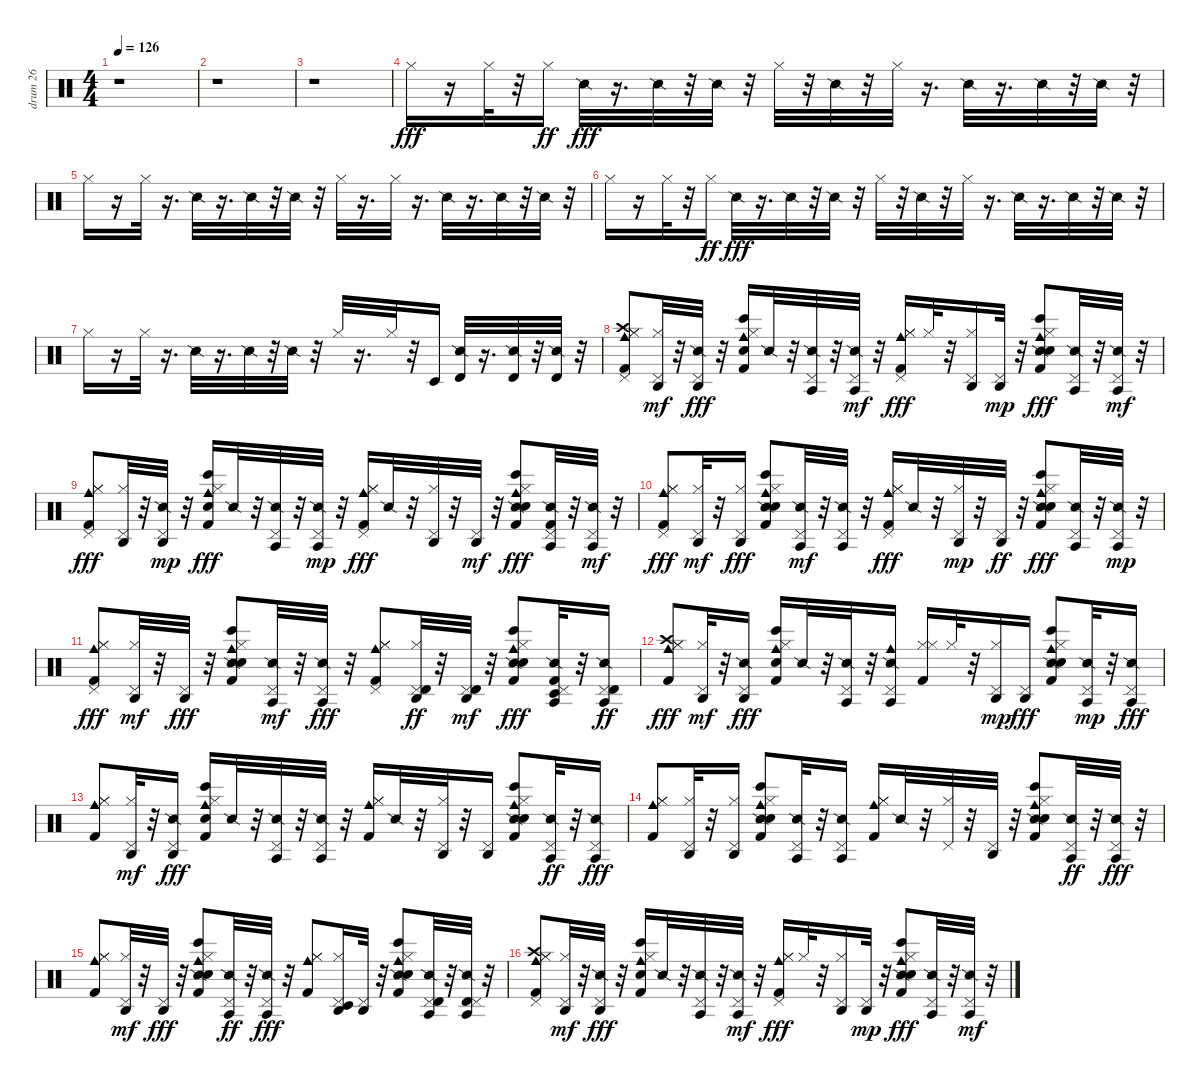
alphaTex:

\track ("drum 26" "drum 26") {instrument percussion}
\staff {score}
\articulation defaults
\ts (4 4)
\tempo 126
\clef neutral
\ks c
r.1{dy fff} |
r.1 |
r.1 |
"Hi-Hat (closed)".16 r.16 "Hi-Hat (closed)".32 r.32 "Hi-Hat (closed)".16{dy ff} "Snare (side stick) 2".32{dy fff} r.16{d} "Snare (side stick) 2".32 r.32 "Snare (side stick) 2".32 r.32 "Hi-Hat (closed)".32 r.32 "Snare (side stick) 2".32 r.32 "Hi-Hat (closed)".32 r.16{d} "Snare (side stick) 2".32 r.16{d} "Snare (side stick) 2".32 r.32 "Snare (side stick) 2".32 r.32 |
"Hi-Hat (closed)".16 r.16 "Hi-Hat (closed)".32 r.16{d} "Snare (side stick) 2".32 r.16{d} "Snare (side stick) 2".32 r.32 "Snare (side stick) 2".32 r.32 "Hi-Hat (closed)".32 r.16{d} "Hi-Hat (closed)".32 r.16{d} "Snare (side stick) 2".32 r.16{d} "Snare (side stick) 2".32 r.32 "Snare (side stick) 2".32 r.32 |
"Hi-Hat (closed)".16 r.16 "Hi-Hat (closed)".32 r.32 "Hi-Hat (closed)".16{dy ff} "Snare (side stick) 2".32{dy fff} r.16{d} "Snare (side stick) 2".32 r.32 "Snare (side stick) 2".32 r.32 "Hi-Hat (closed)".32 r.32 "Snare (side stick) 2".32 r.32 "Hi-Hat (closed)".32 r.16{d} "Snare (side stick) 2".32 r.16{d} "Snare (side stick) 2".32 r.32 "Snare (side stick) 2".32 r.32 |
"Hi-Hat (closed)".16 r.16 "Hi-Hat (closed)".32 r.16{d} "Snare (side stick) 2".32 r.16{d} "Snare (side stick) 2".32 r.32 "Snare (side stick) 2".32 r.32 "Hi-Hat (closed)".32 r.16{d} "Hi-Hat (closed)".32 r.32 "Timbale low (hit)".16 ("Timbale high (hit)" "Snare (side stick) 2").32 r.16{d} ("Timbale high (hit)" "Snare (side stick) 2").32 r.32 ("Timbale high (hit)" "Snare (side stick) 2").32 r.32 |
("Hi-Hat (closed)" "Kick (hit) 2" "Hi-Hat (closed)" "Pedal Hi-Hat (hit)" "Crash high (hit)" "Cowbell medium (hit)").8 ("Hi-Hat (closed)" "Pedal Hi-Hat (hit)" "Agogo high (hit)").32{dy mf} r.32 ("Snare (side stick) 2" "Pedal Hi-Hat (hit)" "Agogo high (hit)").32{dy fff} r.32 ("Bongo High (hit)" "Kick (hit) 2" "Hand Clap (hit)" "Hi-Hat (closed)" "Cowbell medium (hit)").16 "Snare (side stick) 2".32 r.32 ("Snare (side stick) 2" "Pedal Hi-Hat (hit)" "Agogo tow (hit)").32 r.32 ("Snare (side stick) 2" "Pedal Hi-Hat (hit)" "Agogo tow (hit)").32{dy mf} r.32 ("Hi-Hat (closed)" "Kick (hit) 2" "Hi-Hat (closed)" "Pedal Hi-Hat (hit)" "Cowbell medium (hit)").16{dy fff} "Hi-Hat (closed)".32 r.32 ("Hi-Hat (closed)" "Pedal Hi-Hat (hit)" "Agogo high (hit)").16 ("Pedal Hi-Hat (hit)" "Agogo high (hit)").32{dy mp} r.32 ("Bongo High (hit)" "Snare (side stick) 2" "Kick (hit) 2" "Hand Clap (hit)" "Hi-Hat (closed)" "Cowbell medium (hit)").8{dy fff} ("Snare (side stick) 2" "Pedal Hi-Hat (hit)" "Agogo tow (hit)").32 r.32 ("Snare (side stick) 2" "Pedal Hi-Hat (hit)" "Agogo tow (hit)").32{dy mf} r.32 |
("Hi-Hat (closed)" "Kick (hit) 2" "Hi-Hat (closed)" "Pedal Hi-Hat (hit)" "Cowbell medium (hit)").8{dy fff} ("Hi-Hat (closed)" "Pedal Hi-Hat (hit)" "Agogo high (hit)").32 r.32 ("Snare (side stick) 2" "Pedal Hi-Hat (hit)" "Agogo high (hit)").32{dy mp} r.32 ("Bongo High (hit)" "Kick (hit) 2" "Hand Clap (hit)" "Hi-Hat (closed)" "Cowbell medium (hit)").16{dy fff} "Snare (side stick) 2".32 r.32 ("Snare (side stick) 2" "Pedal Hi-Hat (hit)" "Agogo tow (hit)").32 r.32 ("Snare (side stick) 2" "Pedal Hi-Hat (hit)" "Agogo tow (hit)").32{dy mp} r.32 ("Hi-Hat (closed)" "Kick (hit) 2" "Hi-Hat (closed)" "Pedal Hi-Hat (hit)" "Cowbell medium (hit)").16{dy fff} "Snare (side stick) 2".32 r.32 ("Hi-Hat (closed)" "Pedal Hi-Hat (hit)" "Agogo high (hit)").32 r.32 ("Pedal Hi-Hat (hit)" "Agogo high (hit)").32{dy mf} r.32 ("Bongo High (hit)" "Snare (side stick) 2" "Kick (hit) 2" "Hand Clap (hit)" "Hi-Hat (closed)" "Cowbell medium (hit)").8{dy fff} ("Snare (side stick) 2" "Kick (hit) 2" "Pedal Hi-Hat (hit)" "Agogo tow (hit)").32 r.32 ("Snare (side stick) 2" "Pedal Hi-Hat (hit)" "Agogo tow (hit)").32{dy mf} r.32 |
("Hi-Hat (closed)" "Kick (hit) 2" "Hi-Hat (closed)" "Pedal Hi-Hat (hit)" "Cowbell medium (hit)").8{dy fff} ("Hi-Hat (closed)" "Pedal Hi-Hat (hit)" "Agogo high (hit)").32{dy mf} r.32 ("Hi-Hat (closed)" "Pedal Hi-Hat (hit)" "Agogo high (hit)").16{dy fff} ("Bongo High (hit)" "Snare (side stick) 2" "Kick (hit) 2" "Hand Clap (hit)" "Hi-Hat (closed)" "Cowbell medium (hit)").8 ("Snare (side stick) 2" "Pedal Hi-Hat (hit)" "Agogo tow (hit)").32{dy mf} r.32 ("Snare (side stick) 2" "Pedal Hi-Hat (hit)" "Agogo tow (hit)").32 r.32 ("Hi-Hat (closed)" "Kick (hit) 2" "Hi-Hat (closed)" "Pedal Hi-Hat (hit)" "Cowbell medium (hit)").16{dy fff} "Snare (side stick) 2".32 r.32 ("Hi-Hat (closed)" "Pedal Hi-Hat (hit)" "Agogo high (hit)").32{dy mp} r.32 ("Pedal Hi-Hat (hit)" "Agogo high (hit)").32{dy ff} r.32 ("Bongo High (hit)" "Snare (side stick) 2" "Kick (hit) 2" "Hand Clap (hit)" "Hi-Hat (closed)" "Cowbell medium (hit)").8{dy fff} ("Snare (side stick) 2" "Pedal Hi-Hat (hit)" "Agogo tow (hit)").32 r.32 ("Snare (side stick) 2" "Pedal Hi-Hat (hit)" "Agogo tow (hit)").32{dy mp} r.32 |
("Hi-Hat (closed)" "Kick (hit) 2" "Hi-Hat (closed)" "Pedal Hi-Hat (hit)" "Cowbell medium (hit)").8{dy fff} ("Hi-Hat (closed)" "Pedal Hi-Hat (hit)" "Agogo high (hit)").32{dy mf} r.32 ("Pedal Hi-Hat (hit)" "Agogo high (hit)").32{dy fff} r.32 ("Bongo High (hit)" "Snare (side stick) 2" "Kick (hit) 2" "Hand Clap (hit)" "Hi-Hat (closed)" "Cowbell medium (hit)").8 ("Snare (side stick) 2" "Pedal Hi-Hat (hit)" "Agogo tow (hit)").32{dy mf} r.32 ("Snare (side stick) 2" "Pedal Hi-Hat (hit)" "Agogo tow (hit)").32{dy fff} r.32 ("Hi-Hat (closed)" "Kick (hit) 2" "Hi-Hat (closed)" "Pedal Hi-Hat (hit)" "Cowbell medium (hit)").8 ("Hi-Hat (closed)" "Pedal Hi-Hat (hit)" "Timbale high (hit)" "Agogo high (hit)").32{dy ff} r.32 ("Pedal Hi-Hat (hit)" "Timbale high (hit)" "Agogo high (hit)").32{dy mf} r.32 ("Bongo High (hit)" "Snare (side stick) 2" "Kick (hit) 2" "Hand Clap (hit)" "Hi-Hat (closed)" "Cowbell medium (hit)").8{dy fff} ("Snare (side stick) 2" "Kick (hit) 2" "Pedal Hi-Hat (hit)" "Timbale low (hit)" "Agogo tow (hit)").32 r.32 ("Snare (side stick) 2" "Pedal Hi-Hat (hit)" "Timbale high (hit)" "Agogo tow (hit)").16{dy ff} |
("Hi-Hat (closed)" "Kick (hit) 2" "Hi-Hat (closed)" "Crash high (hit)" "Cowbell medium (hit)").8{dy fff} ("Hi-Hat (closed)" "Pedal Hi-Hat (hit)" "Agogo high (hit)").32{dy mf} r.32 ("Snare (side stick) 2" "Agogo high (hit)" "Pedal Hi-Hat (hit)").16{dy fff} ("Bongo High (hit)" "Kick (hit) 2" "Hand Clap (hit)" "Hi-Hat (closed)" "Cowbell medium (hit)").16 "Snare (side stick) 2".32 r.32 ("Snare (side stick) 2" "Pedal Hi-Hat (hit)" "Agogo tow (hit)").32 r.32 ("Snare (side stick) 2" "Cowbell medium (hit)" "Agogo tow (hit)" "Pedal Hi-Hat (hit)").16 ("Hi-Hat (closed)" "Kick (hit) 2" "Hi-Hat (closed)").16 "Hi-Hat (closed)".32 r.32 ("Hi-Hat (closed)" "Pedal Hi-Hat (hit)" "Agogo high (hit)").16{dy mp} ("Agogo high (hit)" "Pedal Hi-Hat (hit)").16{dy fff} ("Bongo High (hit)" "Snare (side stick) 2" "Kick (hit) 2" "Hand Clap (hit)" "Hi-Hat (closed)" "Cowbell medium (hit)").8 ("Snare (side stick) 2" "Pedal Hi-Hat (hit)" "Agogo tow (hit)").32{dy mp} r.32 ("Snare (side stick) 2" "Agogo tow (hit)" "Pedal Hi-Hat (hit)").16{dy fff} |
("Hi-Hat (closed)" "Kick (hit) 2" "Hi-Hat (closed)" "Cowbell medium (hit)").8 ("Hi-Hat (closed)" "Pedal Hi-Hat (hit)" "Agogo high (hit)").32{dy mf} r.32 ("Snare (side stick) 2" "Agogo high (hit)" "Pedal Hi-Hat (hit)").16{dy fff} ("Bongo High (hit)" "Kick (hit) 2" "Hand Clap (hit)" "Hi-Hat (closed)" "Cowbell medium (hit)").16 "Snare (side stick) 2".32 r.32 ("Snare (side stick) 2" "Pedal Hi-Hat (hit)" "Agogo tow (hit)").32 r.32 ("Snare (side stick) 2" "Agogo tow (hit)" "Pedal Hi-Hat (hit)").32 r.32 ("Hi-Hat (closed)" "Kick (hit) 2" "Hi-Hat (closed)" "Cowbell medium (hit)").16 "Snare (side stick) 2".32 r.32 ("Hi-Hat (closed)" "Pedal Hi-Hat (hit)" "Agogo high (hit)").32 r.32 ("Agogo high (hit)" "Pedal Hi-Hat (hit)").16 ("Bongo High (hit)" "Snare (side stick) 2" "Kick (hit) 2" "Hand Clap (hit)" "Hi-Hat (closed)" "Cowbell medium (hit)").8 ("Snare (side stick) 2" "Pedal Hi-Hat (hit)" "Agogo tow (hit)").32{dy ff} r.32 ("Snare (side stick) 2" "Agogo tow (hit)" "Pedal Hi-Hat (hit)").16{dy fff} |
("Hi-Hat (closed)" "Kick (hit) 2" "Hi-Hat (closed)" "Cowbell medium (hit)").8 ("Hi-Hat (closed)" "Pedal Hi-Hat (hit)" "Agogo high (hit)").32 r.32 ("Hi-Hat (closed)" "Agogo high (hit)" "Pedal Hi-Hat (hit)").16 ("Bongo High (hit)" "Snare (side stick) 2" "Kick (hit) 2" "Hand Clap (hit)" "Hi-Hat (closed)" "Cowbell medium (hit)").8 ("Snare (side stick) 2" "Pedal Hi-Hat (hit)" "Agogo tow (hit)").32 r.32 ("Snare (side stick) 2" "Agogo tow (hit)" "Pedal Hi-Hat (hit)").16 ("Hi-Hat (closed)" "Kick (hit) 2" "Hi-Hat (closed)" "Cowbell medium (hit)").16 "Snare (side stick) 2".32 r.32 ("Hi-Hat (closed)" "Pedal Hi-Hat (hit)").32 r.32 ("Agogo high (hit)" "Pedal Hi-Hat (hit)").32 r.32 ("Bongo High (hit)" "Snare (side stick) 2" "Kick (hit) 2" "Hand Clap (hit)" "Hi-Hat (closed)" "Cowbell medium (hit)").8 ("Snare (side stick) 2" "Pedal Hi-Hat (hit)" "Agogo tow (hit)").32{dy ff} r.32 ("Snare (side stick) 2" "Agogo tow (hit)" "Pedal Hi-Hat (hit)").32{dy fff} r.32 |
("Hi-Hat (closed)" "Kick (hit) 2" "Hi-Hat (closed)" "Cowbell medium (hit)").8 ("Hi-Hat (closed)" "Pedal Hi-Hat (hit)" "Agogo high (hit)").32{dy mf} r.32 ("Agogo high (hit)" "Pedal Hi-Hat (hit)").32{dy fff} r.32 ("Bongo High (hit)" "Snare (side stick) 2" "Kick (hit) 2" "Hand Clap (hit)" "Hi-Hat (closed)" "Cowbell medium (hit)").8 ("Snare (side stick) 2" "Pedal Hi-Hat (hit)" "Agogo tow (hit)").32{dy ff} r.32 ("Snare (side stick) 2" "Agogo tow (hit)" "Pedal Hi-Hat (hit)").32{dy fff} r.32 ("Hi-Hat (closed)" "Kick (hit) 2" "Hi-Hat (closed)" "Cowbell medium (hit)").8 ("Hi-Hat (closed)" "Pedal Hi-Hat (hit)" "Timbale low (hit)" "Agogo high (hit)").16 ("Agogo high (hit)" "Pedal Hi-Hat (hit)").32 r.32 ("Bongo High (hit)" "Snare (side stick) 2" "Kick (hit) 2" "Hand Clap (hit)" "Hi-Hat (closed)" "Cowbell medium (hit)").8 ("Snare (side stick) 2" "Pedal Hi-Hat (hit)" "Timbale high (hit)" "Agogo tow (hit)").32 r.32 ("Snare (side stick) 2" "Timbale high (hit)" "Agogo tow (hit)" "Pedal Hi-Hat (hit)").32 r.32 |
("Hi-Hat (closed)" "Kick (hit) 2" "Hi-Hat (closed)" "Pedal Hi-Hat (hit)" "Crash high (hit)" "Cowbell medium (hit)").8 ("Hi-Hat (closed)" "Pedal Hi-Hat (hit)" "Agogo high (hit)").32{dy mf} r.32 ("Snare (side stick) 2" "Pedal Hi-Hat (hit)" "Agogo high (hit)").32{dy fff} r.32 ("Bongo High (hit)" "Kick (hit) 2" "Hand Clap (hit)" "Hi-Hat (closed)" "Cowbell medium (hit)").16 "Snare (side stick) 2".32 r.32 ("Snare (side stick) 2" "Pedal Hi-Hat (hit)" "Agogo tow (hit)").32 r.32 ("Snare (side stick) 2" "Pedal Hi-Hat (hit)" "Agogo tow (hit)").32{dy mf} r.32 ("Hi-Hat (closed)" "Kick (hit) 2" "Hi-Hat (closed)" "Pedal Hi-Hat (hit)" "Cowbell medium (hit)").16{dy fff} "Hi-Hat (closed)".32 r.32 ("Hi-Hat (closed)" "Pedal Hi-Hat (hit)" "Agogo high (hit)").16 ("Pedal Hi-Hat (hit)" "Agogo high (hit)").32{dy mp} r.32 ("Bongo High (hit)" "Snare (side stick) 2" "Kick (hit) 2" "Hand Clap (hit)" "Hi-Hat (closed)" "Cowbell medium (hit)").8{dy fff} ("Snare (side stick) 2" "Pedal Hi-Hat (hit)" "Agogo tow (hit)").32 r.32 ("Snare (side stick) 2" "Pedal Hi-Hat (hit)" "Agogo tow (hit)").32{dy mf} r.32
